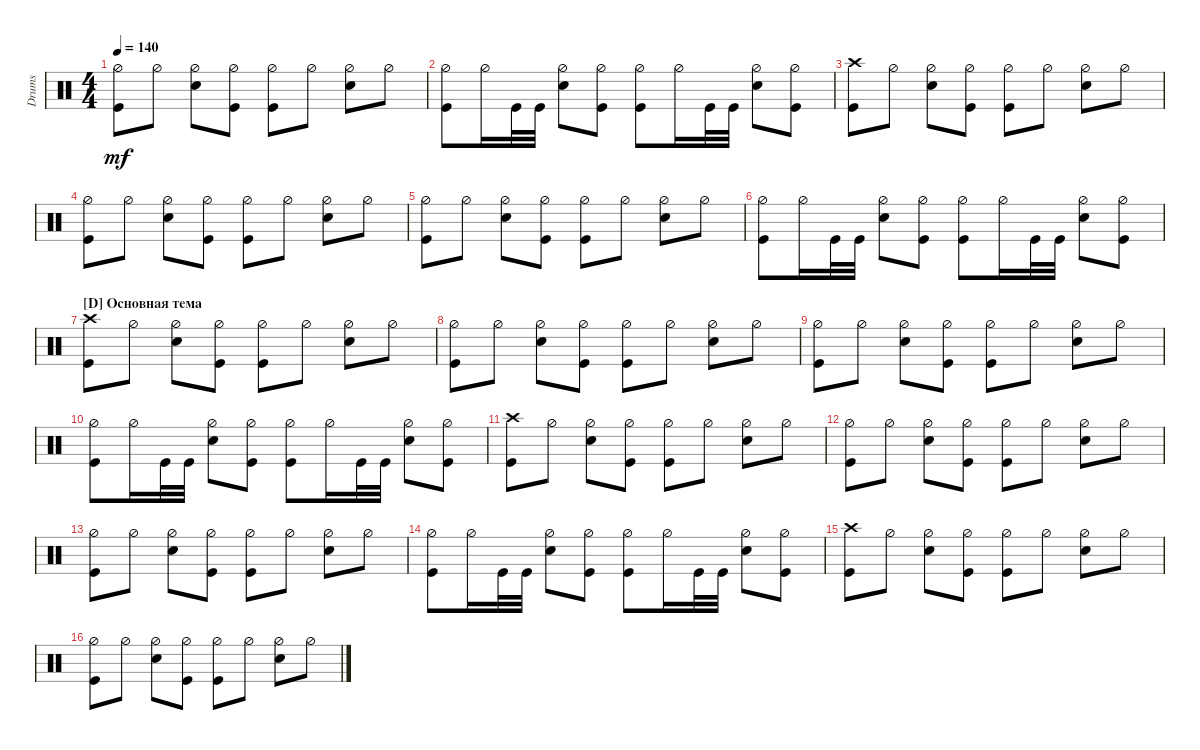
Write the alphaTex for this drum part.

\track ("Drumkit" "Drums") {instrument percussion}
\staff {score}
\articulation defaults
\ts (4 4)
\tempo 140
\clef neutral
\ks c
("Kick (hit)" "Hi-Hat (half)").8{dy mf} "Hi-Hat (half)".8 ("Snare (hit) 2" "Hi-Hat (half)").8 ("Kick (hit)" "Hi-Hat (half)").8 ("Kick (hit)" "Hi-Hat (half)").8 "Hi-Hat (half)".8 ("Snare (hit) 2" "Hi-Hat (half)").8 "Hi-Hat (half)".8 |
("Kick (hit)" "Hi-Hat (half)").8 "Hi-Hat (half)".16 "Kick (hit)".32 "Kick (hit)".32 ("Hi-Hat (half)" "Snare (hit) 2").8 ("Kick (hit)" "Hi-Hat (half)").8 ("Kick (hit)" "Hi-Hat (half)").8 "Hi-Hat (half)".16 "Kick (hit)".32 "Kick (hit)".32 ("Hi-Hat (half)" "Snare (hit) 2").8 ("Hi-Hat (half)" "Kick (hit)").8 |
("Kick (hit)" "Crash high (hit)").8 "Hi-Hat (half)".8 ("Snare (hit) 2" "Hi-Hat (half)").8 ("Kick (hit)" "Hi-Hat (half)").8 ("Kick (hit)" "Hi-Hat (half)").8 "Hi-Hat (half)".8 ("Snare (hit) 2" "Hi-Hat (half)").8 "Hi-Hat (half)".8 |
("Kick (hit)" "Hi-Hat (half)").8 "Hi-Hat (half)".8 ("Snare (hit) 2" "Hi-Hat (half)").8 ("Kick (hit)" "Hi-Hat (half)").8 ("Kick (hit)" "Hi-Hat (half)").8 "Hi-Hat (half)".8 ("Snare (hit) 2" "Hi-Hat (half)").8 "Hi-Hat (half)".8 |
("Kick (hit)" "Hi-Hat (half)").8 "Hi-Hat (half)".8 ("Snare (hit) 2" "Hi-Hat (half)").8 ("Kick (hit)" "Hi-Hat (half)").8 ("Kick (hit)" "Hi-Hat (half)").8 "Hi-Hat (half)".8 ("Snare (hit) 2" "Hi-Hat (half)").8 "Hi-Hat (half)".8 |
("Kick (hit)" "Hi-Hat (half)").8 "Hi-Hat (half)".16 "Kick (hit)".32 "Kick (hit)".32 ("Hi-Hat (half)" "Snare (hit) 2").8 ("Kick (hit)" "Hi-Hat (half)").8 ("Kick (hit)" "Hi-Hat (half)").8 "Hi-Hat (half)".16 "Kick (hit)".32 "Kick (hit)".32 ("Hi-Hat (half)" "Snare (hit) 2").8 ("Hi-Hat (half)" "Kick (hit)").8 |
\section ("D" "Основная тема")
("Kick (hit)" "Crash high (hit)").8 "Hi-Hat (half)".8 ("Snare (hit) 2" "Hi-Hat (half)").8 ("Kick (hit)" "Hi-Hat (half)").8 ("Kick (hit)" "Hi-Hat (half)").8 "Hi-Hat (half)".8 ("Snare (hit) 2" "Hi-Hat (half)").8 "Hi-Hat (half)".8 |
("Kick (hit)" "Hi-Hat (half)").8 "Hi-Hat (half)".8 ("Snare (hit) 2" "Hi-Hat (half)").8 ("Kick (hit)" "Hi-Hat (half)").8 ("Kick (hit)" "Hi-Hat (half)").8 "Hi-Hat (half)".8 ("Snare (hit) 2" "Hi-Hat (half)").8 "Hi-Hat (half)".8 |
("Kick (hit)" "Hi-Hat (half)").8 "Hi-Hat (half)".8 ("Snare (hit) 2" "Hi-Hat (half)").8 ("Kick (hit)" "Hi-Hat (half)").8 ("Kick (hit)" "Hi-Hat (half)").8 "Hi-Hat (half)".8 ("Snare (hit) 2" "Hi-Hat (half)").8 "Hi-Hat (half)".8 |
("Kick (hit)" "Hi-Hat (half)").8 "Hi-Hat (half)".16 "Kick (hit)".32 "Kick (hit)".32 ("Hi-Hat (half)" "Snare (hit) 2").8 ("Kick (hit)" "Hi-Hat (half)").8 ("Kick (hit)" "Hi-Hat (half)").8 "Hi-Hat (half)".16 "Kick (hit)".32 "Kick (hit)".32 ("Hi-Hat (half)" "Snare (hit) 2").8 ("Hi-Hat (half)" "Kick (hit)").8 |
("Kick (hit)" "Crash high (hit)").8 "Hi-Hat (half)".8 ("Snare (hit) 2" "Hi-Hat (half)").8 ("Kick (hit)" "Hi-Hat (half)").8 ("Kick (hit)" "Hi-Hat (half)").8 "Hi-Hat (half)".8 ("Snare (hit) 2" "Hi-Hat (half)").8 "Hi-Hat (half)".8 |
("Kick (hit)" "Hi-Hat (half)").8 "Hi-Hat (half)".8 ("Snare (hit) 2" "Hi-Hat (half)").8 ("Kick (hit)" "Hi-Hat (half)").8 ("Kick (hit)" "Hi-Hat (half)").8 "Hi-Hat (half)".8 ("Snare (hit) 2" "Hi-Hat (half)").8 "Hi-Hat (half)".8 |
("Kick (hit)" "Hi-Hat (half)").8 "Hi-Hat (half)".8 ("Snare (hit) 2" "Hi-Hat (half)").8 ("Kick (hit)" "Hi-Hat (half)").8 ("Kick (hit)" "Hi-Hat (half)").8 "Hi-Hat (half)".8 ("Snare (hit) 2" "Hi-Hat (half)").8 "Hi-Hat (half)".8 |
("Kick (hit)" "Hi-Hat (half)").8 "Hi-Hat (half)".16 "Kick (hit)".32 "Kick (hit)".32 ("Hi-Hat (half)" "Snare (hit) 2").8 ("Kick (hit)" "Hi-Hat (half)").8 ("Kick (hit)" "Hi-Hat (half)").8 "Hi-Hat (half)".16 "Kick (hit)".32 "Kick (hit)".32 ("Hi-Hat (half)" "Snare (hit) 2").8 ("Hi-Hat (half)" "Kick (hit)").8 |
("Kick (hit)" "Crash high (hit)").8 "Hi-Hat (half)".8 ("Snare (hit) 2" "Hi-Hat (half)").8 ("Kick (hit)" "Hi-Hat (half)").8 ("Kick (hit)" "Hi-Hat (half)").8 "Hi-Hat (half)".8 ("Snare (hit) 2" "Hi-Hat (half)").8 "Hi-Hat (half)".8 |
("Kick (hit)" "Hi-Hat (half)").8 "Hi-Hat (half)".8 ("Snare (hit) 2" "Hi-Hat (half)").8 ("Kick (hit)" "Hi-Hat (half)").8 ("Kick (hit)" "Hi-Hat (half)").8 "Hi-Hat (half)".8 ("Snare (hit) 2" "Hi-Hat (half)").8 "Hi-Hat (half)".8
